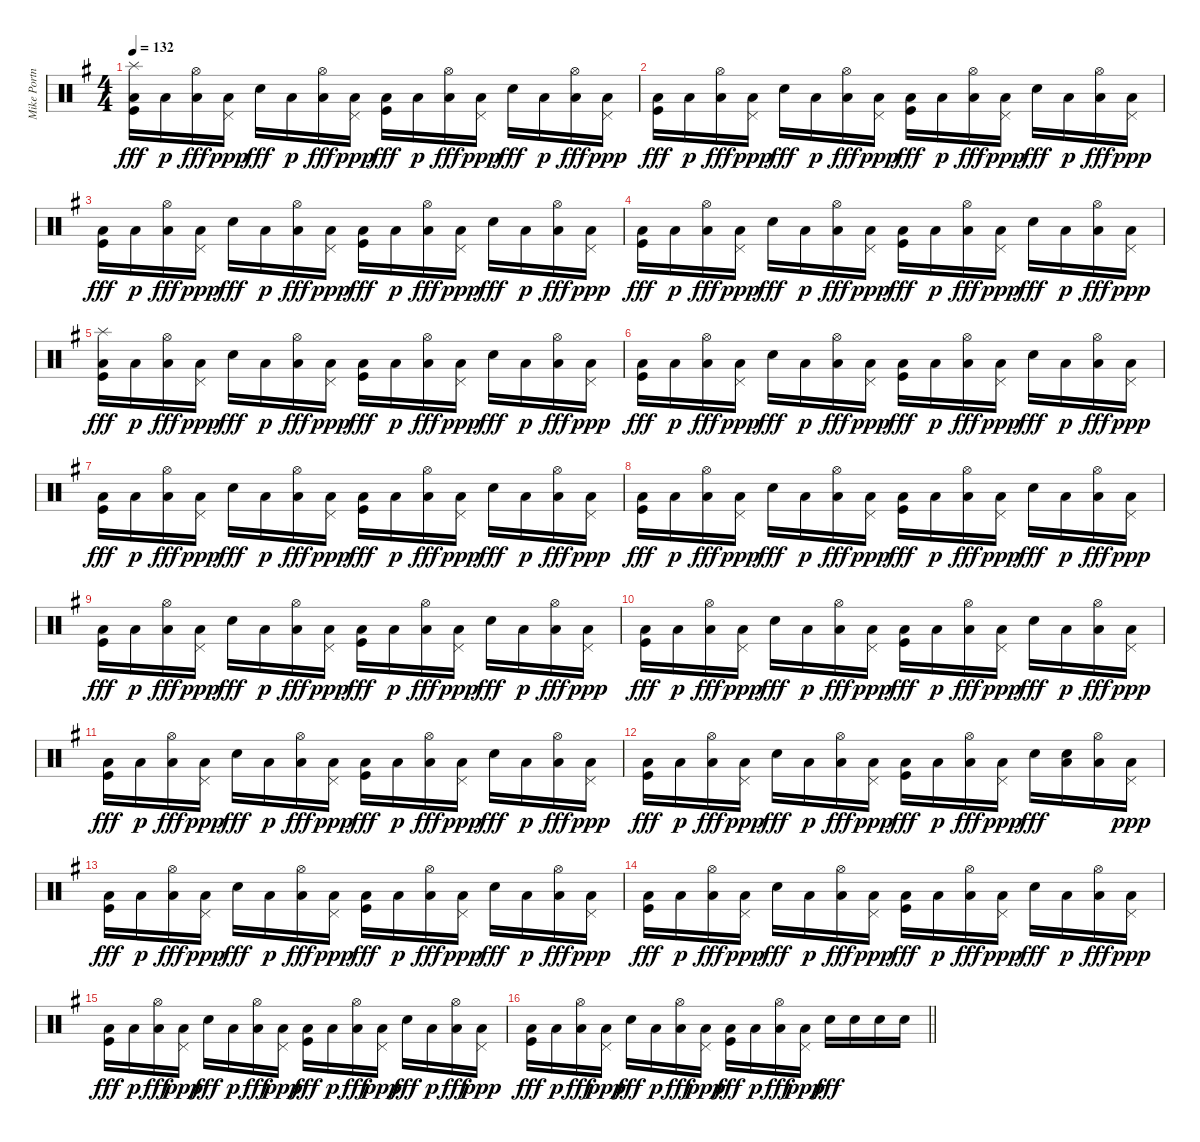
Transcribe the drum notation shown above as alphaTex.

\track ("Mike Portnoy" "Mike Portn") {instrument percussion}
\staff {score}
\articulation defaults
\ts (4 4)
\tempo 132
\clef neutral
\ks eminor
("Low Floor Tom (hit)" "Kick (hit)" "Splash (hit)").16{dy fff} "Low Floor Tom (hit)".16{dy p} ("Low Floor Tom (hit)" "Hi-Hat (open)").16{dy fff} ("Low Floor Tom (hit)" "Pedal Hi-Hat (hit)").16{dy ppp} "Snare (hit) 2".16{dy fff} "Low Floor Tom (hit)".16{dy p} ("Low Floor Tom (hit)" "Hi-Hat (open)").16{dy fff} ("Low Floor Tom (hit)" "Pedal Hi-Hat (hit)").16{dy ppp} ("Low Floor Tom (hit)" "Kick (hit)").16{dy fff} "Low Floor Tom (hit)".16{dy p} ("Low Floor Tom (hit)" "Hi-Hat (open)").16{dy fff} ("Low Floor Tom (hit)" "Pedal Hi-Hat (hit)").16{dy ppp} "Snare (hit) 2".16{dy fff} "Low Floor Tom (hit)".16{dy p} ("Low Floor Tom (hit)" "Hi-Hat (open)").16{dy fff} ("Low Floor Tom (hit)" "Pedal Hi-Hat (hit)").16{dy ppp} |
("Low Floor Tom (hit)" "Kick (hit)").16{dy fff} "Low Floor Tom (hit)".16{dy p} ("Low Floor Tom (hit)" "Hi-Hat (open)").16{dy fff} ("Low Floor Tom (hit)" "Pedal Hi-Hat (hit)").16{dy ppp} "Snare (hit) 2".16{dy fff} "Low Floor Tom (hit)".16{dy p} ("Low Floor Tom (hit)" "Hi-Hat (open)").16{dy fff} ("Low Floor Tom (hit)" "Pedal Hi-Hat (hit)").16{dy ppp} ("Low Floor Tom (hit)" "Kick (hit)").16{dy fff} "Low Floor Tom (hit)".16{dy p} ("Low Floor Tom (hit)" "Hi-Hat (open)").16{dy fff} ("Low Floor Tom (hit)" "Pedal Hi-Hat (hit)").16{dy ppp} "Snare (hit) 2".16{dy fff} "Low Floor Tom (hit)".16{dy p} ("Low Floor Tom (hit)" "Hi-Hat (open)").16{dy fff} ("Low Floor Tom (hit)" "Pedal Hi-Hat (hit)").16{dy ppp} |
("Low Floor Tom (hit)" "Kick (hit)").16{dy fff} "Low Floor Tom (hit)".16{dy p} ("Low Floor Tom (hit)" "Hi-Hat (open)").16{dy fff} ("Low Floor Tom (hit)" "Pedal Hi-Hat (hit)").16{dy ppp} "Snare (hit) 2".16{dy fff} "Low Floor Tom (hit)".16{dy p} ("Low Floor Tom (hit)" "Hi-Hat (open)").16{dy fff} ("Low Floor Tom (hit)" "Pedal Hi-Hat (hit)").16{dy ppp} ("Low Floor Tom (hit)" "Kick (hit)").16{dy fff} "Low Floor Tom (hit)".16{dy p} ("Low Floor Tom (hit)" "Hi-Hat (open)").16{dy fff} ("Low Floor Tom (hit)" "Pedal Hi-Hat (hit)").16{dy ppp} "Snare (hit) 2".16{dy fff} "Low Floor Tom (hit)".16{dy p} ("Low Floor Tom (hit)" "Hi-Hat (open)").16{dy fff} ("Low Floor Tom (hit)" "Pedal Hi-Hat (hit)").16{dy ppp} |
("Low Floor Tom (hit)" "Kick (hit)").16{dy fff} "Low Floor Tom (hit)".16{dy p} ("Low Floor Tom (hit)" "Hi-Hat (open)").16{dy fff} ("Low Floor Tom (hit)" "Pedal Hi-Hat (hit)").16{dy ppp} "Snare (hit) 2".16{dy fff} "Low Floor Tom (hit)".16{dy p} ("Low Floor Tom (hit)" "Hi-Hat (open)").16{dy fff} ("Low Floor Tom (hit)" "Pedal Hi-Hat (hit)").16{dy ppp} ("Low Floor Tom (hit)" "Kick (hit)").16{dy fff} "Low Floor Tom (hit)".16{dy p} ("Low Floor Tom (hit)" "Hi-Hat (open)").16{dy fff} ("Low Floor Tom (hit)" "Pedal Hi-Hat (hit)").16{dy ppp} "Snare (hit) 2".16{dy fff} "Low Floor Tom (hit)".16{dy p} ("Low Floor Tom (hit)" "Hi-Hat (open)").16{dy fff} ("Low Floor Tom (hit)" "Pedal Hi-Hat (hit)").16{dy ppp} |
("Low Floor Tom (hit)" "Kick (hit)" "Splash (hit)").16{dy fff} "Low Floor Tom (hit)".16{dy p} ("Low Floor Tom (hit)" "Hi-Hat (open)").16{dy fff} ("Low Floor Tom (hit)" "Pedal Hi-Hat (hit)").16{dy ppp} "Snare (hit) 2".16{dy fff} "Low Floor Tom (hit)".16{dy p} ("Low Floor Tom (hit)" "Hi-Hat (open)").16{dy fff} ("Low Floor Tom (hit)" "Pedal Hi-Hat (hit)").16{dy ppp} ("Low Floor Tom (hit)" "Kick (hit)").16{dy fff} "Low Floor Tom (hit)".16{dy p} ("Low Floor Tom (hit)" "Hi-Hat (open)").16{dy fff} ("Low Floor Tom (hit)" "Pedal Hi-Hat (hit)").16{dy ppp} "Snare (hit) 2".16{dy fff} "Low Floor Tom (hit)".16{dy p} ("Low Floor Tom (hit)" "Hi-Hat (open)").16{dy fff} ("Low Floor Tom (hit)" "Pedal Hi-Hat (hit)").16{dy ppp} |
("Low Floor Tom (hit)" "Kick (hit)").16{dy fff} "Low Floor Tom (hit)".16{dy p} ("Low Floor Tom (hit)" "Hi-Hat (open)").16{dy fff} ("Low Floor Tom (hit)" "Pedal Hi-Hat (hit)").16{dy ppp} "Snare (hit) 2".16{dy fff} "Low Floor Tom (hit)".16{dy p} ("Low Floor Tom (hit)" "Hi-Hat (open)").16{dy fff} ("Low Floor Tom (hit)" "Pedal Hi-Hat (hit)").16{dy ppp} ("Low Floor Tom (hit)" "Kick (hit)").16{dy fff} "Low Floor Tom (hit)".16{dy p} ("Low Floor Tom (hit)" "Hi-Hat (open)").16{dy fff} ("Low Floor Tom (hit)" "Pedal Hi-Hat (hit)").16{dy ppp} "Snare (hit) 2".16{dy fff} "Low Floor Tom (hit)".16{dy p} ("Low Floor Tom (hit)" "Hi-Hat (open)").16{dy fff} ("Low Floor Tom (hit)" "Pedal Hi-Hat (hit)").16{dy ppp} |
("Low Floor Tom (hit)" "Kick (hit)").16{dy fff} "Low Floor Tom (hit)".16{dy p} ("Low Floor Tom (hit)" "Hi-Hat (open)").16{dy fff} ("Low Floor Tom (hit)" "Pedal Hi-Hat (hit)").16{dy ppp} "Snare (hit) 2".16{dy fff} "Low Floor Tom (hit)".16{dy p} ("Low Floor Tom (hit)" "Hi-Hat (open)").16{dy fff} ("Low Floor Tom (hit)" "Pedal Hi-Hat (hit)").16{dy ppp} ("Low Floor Tom (hit)" "Kick (hit)").16{dy fff} "Low Floor Tom (hit)".16{dy p} ("Low Floor Tom (hit)" "Hi-Hat (open)").16{dy fff} ("Low Floor Tom (hit)" "Pedal Hi-Hat (hit)").16{dy ppp} "Snare (hit) 2".16{dy fff} "Low Floor Tom (hit)".16{dy p} ("Low Floor Tom (hit)" "Hi-Hat (open)").16{dy fff} ("Low Floor Tom (hit)" "Pedal Hi-Hat (hit)").16{dy ppp} |
("Low Floor Tom (hit)" "Kick (hit)").16{dy fff} "Low Floor Tom (hit)".16{dy p} ("Low Floor Tom (hit)" "Hi-Hat (open)").16{dy fff} ("Low Floor Tom (hit)" "Pedal Hi-Hat (hit)").16{dy ppp} "Snare (hit) 2".16{dy fff} "Low Floor Tom (hit)".16{dy p} ("Low Floor Tom (hit)" "Hi-Hat (open)").16{dy fff} ("Low Floor Tom (hit)" "Pedal Hi-Hat (hit)").16{dy ppp} ("Low Floor Tom (hit)" "Kick (hit)").16{dy fff} "Low Floor Tom (hit)".16{dy p} ("Low Floor Tom (hit)" "Hi-Hat (open)").16{dy fff} ("Low Floor Tom (hit)" "Pedal Hi-Hat (hit)").16{dy ppp} "Snare (hit) 2".16{dy fff} "Low Floor Tom (hit)".16{dy p} ("Low Floor Tom (hit)" "Hi-Hat (open)").16{dy fff} ("Low Floor Tom (hit)" "Pedal Hi-Hat (hit)").16{dy ppp} |
("Low Floor Tom (hit)" "Kick (hit)").16{dy fff} "Low Floor Tom (hit)".16{dy p} ("Low Floor Tom (hit)" "Hi-Hat (open)").16{dy fff} ("Low Floor Tom (hit)" "Pedal Hi-Hat (hit)").16{dy ppp} "Snare (hit) 2".16{dy fff} "Low Floor Tom (hit)".16{dy p} ("Low Floor Tom (hit)" "Hi-Hat (open)").16{dy fff} ("Low Floor Tom (hit)" "Pedal Hi-Hat (hit)").16{dy ppp} ("Low Floor Tom (hit)" "Kick (hit)").16{dy fff} "Low Floor Tom (hit)".16{dy p} ("Low Floor Tom (hit)" "Hi-Hat (open)").16{dy fff} ("Low Floor Tom (hit)" "Pedal Hi-Hat (hit)").16{dy ppp} "Snare (hit) 2".16{dy fff} "Low Floor Tom (hit)".16{dy p} ("Low Floor Tom (hit)" "Hi-Hat (open)").16{dy fff} ("Low Floor Tom (hit)" "Pedal Hi-Hat (hit)").16{dy ppp} |
("Low Floor Tom (hit)" "Kick (hit)").16{dy fff} "Low Floor Tom (hit)".16{dy p} ("Low Floor Tom (hit)" "Hi-Hat (open)").16{dy fff} ("Low Floor Tom (hit)" "Pedal Hi-Hat (hit)").16{dy ppp} "Snare (hit) 2".16{dy fff} "Low Floor Tom (hit)".16{dy p} ("Low Floor Tom (hit)" "Hi-Hat (open)").16{dy fff} ("Low Floor Tom (hit)" "Pedal Hi-Hat (hit)").16{dy ppp} ("Low Floor Tom (hit)" "Kick (hit)").16{dy fff} "Low Floor Tom (hit)".16{dy p} ("Low Floor Tom (hit)" "Hi-Hat (open)").16{dy fff} ("Low Floor Tom (hit)" "Pedal Hi-Hat (hit)").16{dy ppp} "Snare (hit) 2".16{dy fff} "Low Floor Tom (hit)".16{dy p} ("Low Floor Tom (hit)" "Hi-Hat (open)").16{dy fff} ("Low Floor Tom (hit)" "Pedal Hi-Hat (hit)").16{dy ppp} |
("Low Floor Tom (hit)" "Kick (hit)").16{dy fff} "Low Floor Tom (hit)".16{dy p} ("Low Floor Tom (hit)" "Hi-Hat (open)").16{dy fff} ("Low Floor Tom (hit)" "Pedal Hi-Hat (hit)").16{dy ppp} "Snare (hit) 2".16{dy fff} "Low Floor Tom (hit)".16{dy p} ("Low Floor Tom (hit)" "Hi-Hat (open)").16{dy fff} ("Low Floor Tom (hit)" "Pedal Hi-Hat (hit)").16{dy ppp} ("Low Floor Tom (hit)" "Kick (hit)").16{dy fff} "Low Floor Tom (hit)".16{dy p} ("Low Floor Tom (hit)" "Hi-Hat (open)").16{dy fff} ("Low Floor Tom (hit)" "Pedal Hi-Hat (hit)").16{dy ppp} "Snare (hit) 2".16{dy fff} "Low Floor Tom (hit)".16{dy p} ("Low Floor Tom (hit)" "Hi-Hat (open)").16{dy fff} ("Low Floor Tom (hit)" "Pedal Hi-Hat (hit)").16{dy ppp} |
("Low Floor Tom (hit)" "Kick (hit)").16{dy fff} "Low Floor Tom (hit)".16{dy p} ("Low Floor Tom (hit)" "Hi-Hat (open)").16{dy fff} ("Low Floor Tom (hit)" "Pedal Hi-Hat (hit)").16{dy ppp} "Snare (hit) 2".16{dy fff} "Low Floor Tom (hit)".16{dy p} ("Low Floor Tom (hit)" "Hi-Hat (open)").16{dy fff} ("Low Floor Tom (hit)" "Pedal Hi-Hat (hit)").16{dy ppp} ("Low Floor Tom (hit)" "Kick (hit)").16{dy fff} "Low Floor Tom (hit)".16{dy p} ("Low Floor Tom (hit)" "Hi-Hat (open)").16{dy fff} ("Low Floor Tom (hit)" "Pedal Hi-Hat (hit)").16{dy ppp} "Snare (hit) 2".16{dy fff} ("Low Floor Tom (hit)" "Snare (hit) 2").16 ("Low Floor Tom (hit)" "Hi-Hat (open)").16 ("Low Floor Tom (hit)" "Pedal Hi-Hat (hit)").16{dy ppp} |
("Low Floor Tom (hit)" "Kick (hit)").16{dy fff} "Low Floor Tom (hit)".16{dy p} ("Low Floor Tom (hit)" "Hi-Hat (open)").16{dy fff} ("Low Floor Tom (hit)" "Pedal Hi-Hat (hit)").16{dy ppp} "Snare (hit) 2".16{dy fff} "Low Floor Tom (hit)".16{dy p} ("Low Floor Tom (hit)" "Hi-Hat (open)").16{dy fff} ("Low Floor Tom (hit)" "Pedal Hi-Hat (hit)").16{dy ppp} ("Low Floor Tom (hit)" "Kick (hit)").16{dy fff} "Low Floor Tom (hit)".16{dy p} ("Low Floor Tom (hit)" "Hi-Hat (open)").16{dy fff} ("Low Floor Tom (hit)" "Pedal Hi-Hat (hit)").16{dy ppp} "Snare (hit) 2".16{dy fff} "Low Floor Tom (hit)".16{dy p} ("Low Floor Tom (hit)" "Hi-Hat (open)").16{dy fff} ("Low Floor Tom (hit)" "Pedal Hi-Hat (hit)").16{dy ppp} |
("Low Floor Tom (hit)" "Kick (hit)").16{dy fff} "Low Floor Tom (hit)".16{dy p} ("Low Floor Tom (hit)" "Hi-Hat (open)").16{dy fff} ("Low Floor Tom (hit)" "Pedal Hi-Hat (hit)").16{dy ppp} "Snare (hit) 2".16{dy fff} "Low Floor Tom (hit)".16{dy p} ("Low Floor Tom (hit)" "Hi-Hat (open)").16{dy fff} ("Low Floor Tom (hit)" "Pedal Hi-Hat (hit)").16{dy ppp} ("Low Floor Tom (hit)" "Kick (hit)").16{dy fff} "Low Floor Tom (hit)".16{dy p} ("Low Floor Tom (hit)" "Hi-Hat (open)").16{dy fff} ("Low Floor Tom (hit)" "Pedal Hi-Hat (hit)").16{dy ppp} "Snare (hit) 2".16{dy fff} "Low Floor Tom (hit)".16{dy p} ("Low Floor Tom (hit)" "Hi-Hat (open)").16{dy fff} ("Low Floor Tom (hit)" "Pedal Hi-Hat (hit)").16{dy ppp} |
("Low Floor Tom (hit)" "Kick (hit)").16{dy fff} "Low Floor Tom (hit)".16{dy p} ("Low Floor Tom (hit)" "Hi-Hat (open)").16{dy fff} ("Low Floor Tom (hit)" "Pedal Hi-Hat (hit)").16{dy ppp} "Snare (hit) 2".16{dy fff} "Low Floor Tom (hit)".16{dy p} ("Low Floor Tom (hit)" "Hi-Hat (open)").16{dy fff} ("Low Floor Tom (hit)" "Pedal Hi-Hat (hit)").16{dy ppp} ("Low Floor Tom (hit)" "Kick (hit)").16{dy fff} "Low Floor Tom (hit)".16{dy p} ("Low Floor Tom (hit)" "Hi-Hat (open)").16{dy fff} ("Low Floor Tom (hit)" "Pedal Hi-Hat (hit)").16{dy ppp} "Snare (hit) 2".16{dy fff} "Low Floor Tom (hit)".16{dy p} ("Low Floor Tom (hit)" "Hi-Hat (open)").16{dy fff} ("Low Floor Tom (hit)" "Pedal Hi-Hat (hit)").16{dy ppp} |
\barLineRight lightlight
("Low Floor Tom (hit)" "Kick (hit)").16{dy fff} "Low Floor Tom (hit)".16{dy p} ("Low Floor Tom (hit)" "Hi-Hat (open)").16{dy fff} ("Low Floor Tom (hit)" "Pedal Hi-Hat (hit)").16{dy ppp} "Snare (hit) 2".16{dy fff} "Low Floor Tom (hit)".16{dy p} ("Low Floor Tom (hit)" "Hi-Hat (open)").16{dy fff} ("Low Floor Tom (hit)" "Pedal Hi-Hat (hit)").16{dy ppp} ("Low Floor Tom (hit)" "Kick (hit)").16{dy fff} "Low Floor Tom (hit)".16{dy p} ("Low Floor Tom (hit)" "Hi-Hat (open)").16{dy fff} ("Low Floor Tom (hit)" "Pedal Hi-Hat (hit)").16{dy ppp} "Snare (hit) 2".16{dy fff} "Snare (hit) 2".16 "Snare (hit) 2".16 "Snare (hit) 2".16
